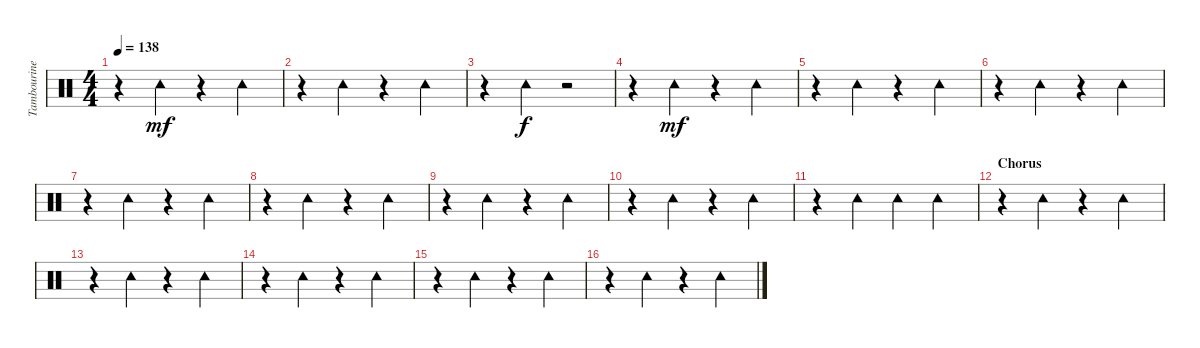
\track ("Tambourine" "Tambourine") {instrument percussion}
\staff {score}
\articulation defaults
\ts (4 4)
\tempo 138
\clef neutral
\ks c
r.4{dy mf} "Tambourine (hit)".4 r.4 "Tambourine (hit)".4 |
r.4 "Tambourine (hit)".4 r.4 "Tambourine (hit)".4 |
r.4 "Tambourine (hit)".4{dy f} r.2 |
r.4 "Tambourine (hit)".4{dy mf} r.4 "Tambourine (hit)".4 |
r.4 "Tambourine (hit)".4 r.4 "Tambourine (hit)".4 |
r.4 "Tambourine (hit)".4 r.4 "Tambourine (hit)".4 |
r.4 "Tambourine (hit)".4 r.4 "Tambourine (hit)".4 |
r.4 "Tambourine (hit)".4 r.4 "Tambourine (hit)".4 |
r.4 "Tambourine (hit)".4 r.4 "Tambourine (hit)".4 |
r.4 "Tambourine (hit)".4 r.4 "Tambourine (hit)".4 |
r.4 "Tambourine (hit)".4 "Tambourine (hit)".4 "Tambourine (hit)".4 |
\section ("" "Chorus")
r.4 "Tambourine (hit)".4 r.4 "Tambourine (hit)".4 |
r.4 "Tambourine (hit)".4 r.4 "Tambourine (hit)".4 |
r.4 "Tambourine (hit)".4 r.4 "Tambourine (hit)".4 |
r.4 "Tambourine (hit)".4 r.4 "Tambourine (hit)".4 |
r.4 "Tambourine (hit)".4 r.4 "Tambourine (hit)".4
